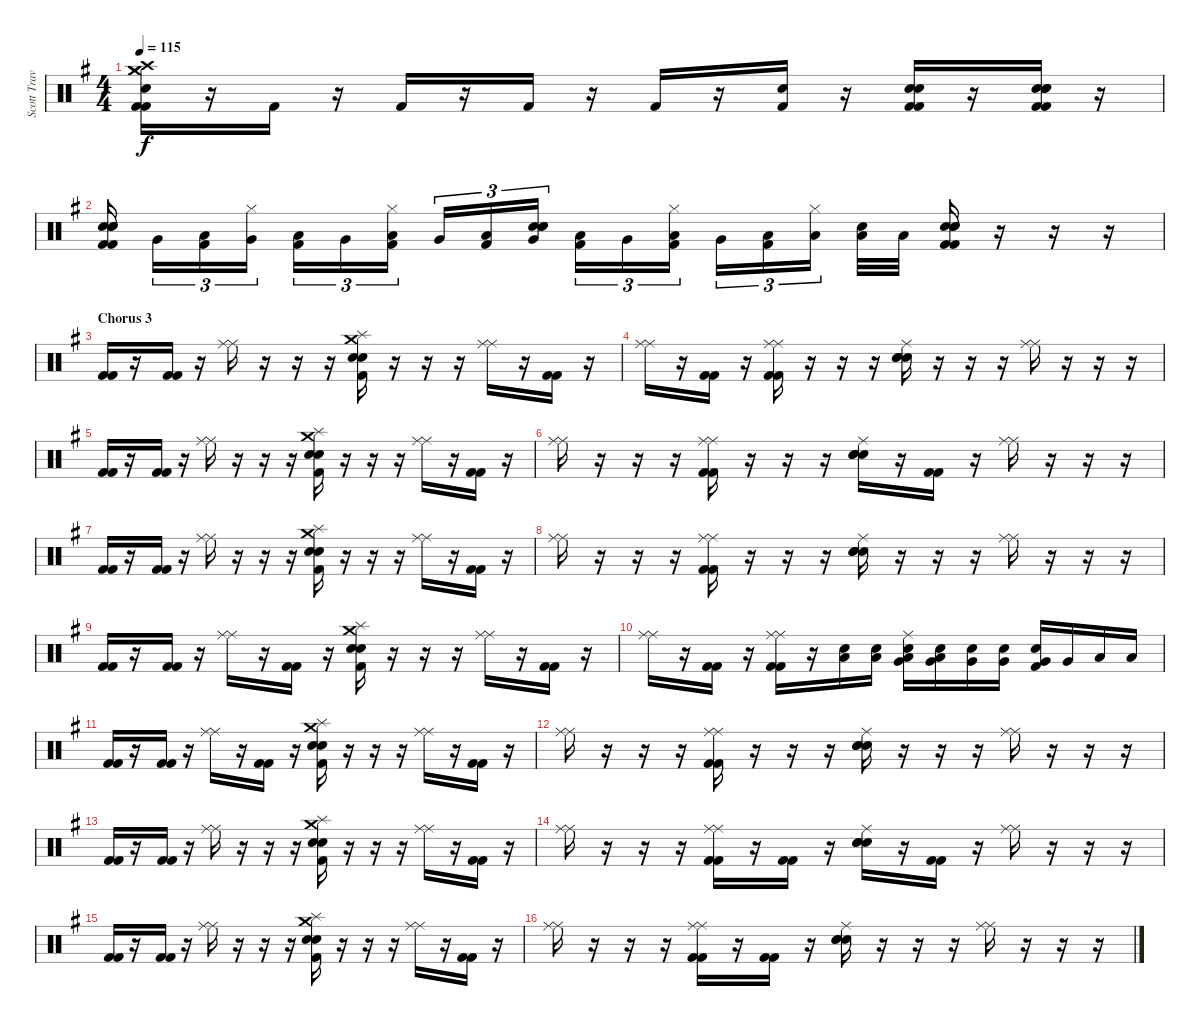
\track ("Scott Travis" "Scott Trav") {instrument percussion}
\staff {score}
\articulation defaults
\ts (4 4)
\tempo 115
\clef neutral
\ks eminor
("Crash high (hit)" "Crash medium (hit)" "Crash medium (hit)" "Snare (hit) 2" "Kick (hit) 2" "Kick (hit) 2").16{dy f} r.16 "Kick (hit) 2".16 r.16 "Kick (hit) 2".16 r.16 "Kick (hit) 2".16 r.16 "Kick (hit) 2".16 r.16 ("Snare (hit) 2" "Kick (hit) 2").16 r.16 ("Snare (hit) 2" "Snare (hit) 2" "Kick (hit) 2" "Kick (hit) 2").16 r.16 ("Snare (hit) 2" "Snare (hit) 2" "Snare (hit) 2" "Kick (hit) 2" "Kick (hit) 2").16 r.16 |
("Snare (hit) 2" "Snare (hit) 2" "Snare (hit) 2" "Kick (hit) 2" "Kick (hit) 2").16 "Very Low Tom (hit)".16{tu (3 2)} ("Low Floor Tom (hit)" "Kick (hit) 2").16{tu (3 2)} ("Hi-Hat (closed)" "Very Low Tom (hit)").16{tu (3 2)} ("Low Floor Tom (hit)" "Kick (hit) 2").16{tu (3 2)} "Very Low Tom (hit)".16{tu (3 2)} ("Hi-Hat (closed)" "Low Floor Tom (hit)" "Kick (hit) 2").16{tu (3 2)} "Very Low Tom (hit)".16{tu (3 2)} ("Low Floor Tom (hit)" "Kick (hit) 2").16{tu (3 2)} ("Snare (hit) 2" "Snare (hit) 2" "Snare (hit) 2" "Very Low Tom (hit)").16{tu (3 2)} ("Low Floor Tom (hit)" "Kick (hit) 2").16{tu (3 2)} "Very Low Tom (hit)".16{tu (3 2)} ("Hi-Hat (closed)" "Low Floor Tom (hit)" "Kick (hit) 2").16{tu (3 2)} "Very Low Tom (hit)".16{tu (3 2)} ("Low Tom (hit)" "Kick (hit) 2").16{tu (3 2)} ("Hi-Hat (closed)" "Low Floor Tom (hit)").16{tu (3 2)} ("Low Tom (hit)" "Snare (hit) 2").32 "Low Floor Tom (hit)".32 ("Snare (hit) 2" "Snare (hit) 2" "Snare (hit) 2" "Kick (hit) 2" "Kick (hit) 2").16 r.16 r.16 r.16 |
\section ("" "Chorus 3")
("Kick (hit) 2" "Kick (hit) 2").16 r.16 ("Kick (hit) 2" "Kick (hit) 2").16 r.16 ("Ride (middle)" "Ride (middle)").16 r.16 r.16 r.16 ("Crash medium (hit)" "Splash (hit)" "Snare (hit) 2" "Snare (hit) 2" "Kick (hit) 2").16 r.16 r.16 r.16 ("Ride (middle)" "Ride (middle)").16 r.16 ("Kick (hit) 2" "Kick (hit) 2").16 r.16 |
("Ride (middle)" "Ride (middle)").16 r.16 ("Kick (hit) 2" "Kick (hit) 2").16 r.16 ("Ride (middle)" "Ride (middle)" "Kick (hit) 2" "Kick (hit) 2").16 r.16 r.16 r.16 ("Ride (middle)" "Snare (hit) 2" "Snare (hit) 2" "Snare (hit) 2").16 r.16 r.16 r.16 ("Ride (middle)" "Ride (middle)").16 r.16 r.16 r.16 |
("Kick (hit) 2" "Kick (hit) 2").16 r.16 ("Kick (hit) 2" "Kick (hit) 2").16 r.16 ("Ride (middle)" "Ride (middle)").16 r.16 r.16 r.16 ("Crash medium (hit)" "Splash (hit)" "Snare (hit) 2" "Snare (hit) 2" "Kick (hit) 2").16 r.16 r.16 r.16 ("Ride (middle)" "Ride (middle)").16 r.16 ("Kick (hit) 2" "Kick (hit) 2").16 r.16 |
("Ride (middle)" "Ride (middle)").16 r.16 r.16 r.16 ("Ride (middle)" "Ride (middle)" "Kick (hit) 2" "Kick (hit) 2").16 r.16 r.16 r.16 ("Ride (middle)" "Snare (hit) 2" "Snare (hit) 2" "Snare (hit) 2").16 r.16 ("Kick (hit) 2" "Kick (hit) 2").16 r.16 ("Ride (middle)" "Ride (middle)").16 r.16 r.16 r.16 |
("Kick (hit) 2" "Kick (hit) 2").16 r.16 ("Kick (hit) 2" "Kick (hit) 2").16 r.16 ("Ride (middle)" "Ride (middle)").16 r.16 r.16 r.16 ("Crash medium (hit)" "Splash (hit)" "Snare (hit) 2" "Snare (hit) 2" "Kick (hit) 2").16 r.16 r.16 r.16 ("Ride (middle)" "Ride (middle)").16 r.16 ("Kick (hit) 2" "Kick (hit) 2").16 r.16 |
("Ride (middle)" "Ride (middle)").16 r.16 r.16 r.16 ("Ride (middle)" "Ride (middle)" "Kick (hit) 2" "Kick (hit) 2").16 r.16 r.16 r.16 ("Ride (middle)" "Snare (hit) 2" "Snare (hit) 2" "Snare (hit) 2").16 r.16 r.16 r.16 ("Ride (middle)" "Ride (middle)").16 r.16 r.16 r.16 |
("Kick (hit) 2" "Kick (hit) 2").16 r.16 ("Kick (hit) 2" "Kick (hit) 2").16 r.16 ("Ride (middle)" "Ride (middle)").16 r.16 ("Kick (hit) 2" "Kick (hit) 2").16 r.16 ("Crash medium (hit)" "Splash (hit)" "Snare (hit) 2" "Snare (hit) 2" "Kick (hit) 2").16 r.16 r.16 r.16 ("Ride (middle)" "Ride (middle)").16 r.16 ("Kick (hit) 2" "Kick (hit) 2").16 r.16 |
("Ride (middle)" "Ride (middle)").16 r.16 ("Kick (hit) 2" "Kick (hit) 2").16 r.16 ("Ride (middle)" "Ride (middle)" "Kick (hit) 2" "Kick (hit) 2").16 r.16 ("Snare (hit) 2" "Low Tom (hit)").16 ("Snare (hit) 2" "Low Tom (hit)").16 ("Ride (middle)" "Snare (hit) 2" "Low Tom (hit)" "Very Low Tom (hit)").16 ("Snare (hit) 2" "Low Tom (hit)" "Very Low Tom (hit)").16 ("Snare (hit) 2" "Very Low Tom (hit)").16 ("Snare (hit) 2" "Very Low Tom (hit)").16 ("Snare (hit) 2" "Very Low Tom (hit)" "Kick (hit) 2").16 "Very Low Tom (hit)".16 "Low Floor Tom (hit)".16 "Low Floor Tom (hit)".16 |
("Kick (hit) 2" "Kick (hit) 2").16 r.16 ("Kick (hit) 2" "Kick (hit) 2").16 r.16 ("Ride (middle)" "Ride (middle)").16 r.16 ("Kick (hit) 2" "Kick (hit) 2").16 r.16 ("Crash medium (hit)" "Splash (hit)" "Snare (hit) 2" "Snare (hit) 2" "Kick (hit) 2").16 r.16 r.16 r.16 ("Ride (middle)" "Ride (middle)").16 r.16 ("Kick (hit) 2" "Kick (hit) 2").16 r.16 |
("Ride (middle)" "Ride (middle)").16 r.16 r.16 r.16 ("Ride (middle)" "Ride (middle)" "Kick (hit) 2" "Kick (hit) 2").16 r.16 r.16 r.16 ("Ride (middle)" "Snare (hit) 2" "Snare (hit) 2" "Snare (hit) 2").16 r.16 r.16 r.16 ("Ride (middle)" "Ride (middle)").16 r.16 r.16 r.16 |
("Kick (hit) 2" "Kick (hit) 2").16 r.16 ("Kick (hit) 2" "Kick (hit) 2").16 r.16 ("Ride (middle)" "Ride (middle)").16 r.16 r.16 r.16 ("Crash medium (hit)" "Splash (hit)" "Snare (hit) 2" "Snare (hit) 2" "Kick (hit) 2").16 r.16 r.16 r.16 ("Ride (middle)" "Ride (middle)").16 r.16 ("Kick (hit) 2" "Kick (hit) 2").16 r.16 |
("Ride (middle)" "Ride (middle)").16 r.16 r.16 r.16 ("Ride (middle)" "Ride (middle)" "Kick (hit) 2" "Kick (hit) 2").16 r.16 ("Kick (hit) 2" "Kick (hit) 2").16 r.16 ("Ride (middle)" "Snare (hit) 2" "Snare (hit) 2" "Snare (hit) 2").16 r.16 ("Kick (hit) 2" "Kick (hit) 2").16 r.16 ("Ride (middle)" "Ride (middle)").16 r.16 r.16 r.16 |
("Kick (hit) 2" "Kick (hit) 2").16 r.16 ("Kick (hit) 2" "Kick (hit) 2").16 r.16 ("Ride (middle)" "Ride (middle)").16 r.16 r.16 r.16 ("Crash medium (hit)" "Splash (hit)" "Snare (hit) 2" "Snare (hit) 2" "Kick (hit) 2").16 r.16 r.16 r.16 ("Ride (middle)" "Ride (middle)").16 r.16 ("Kick (hit) 2" "Kick (hit) 2").16 r.16 |
("Ride (middle)" "Ride (middle)").16 r.16 r.16 r.16 ("Ride (middle)" "Ride (middle)" "Kick (hit) 2" "Kick (hit) 2").16 r.16 ("Kick (hit) 2" "Kick (hit) 2").16 r.16 ("Ride (middle)" "Snare (hit) 2" "Snare (hit) 2" "Snare (hit) 2").16 r.16 r.16 r.16 ("Ride (middle)" "Ride (middle)").16 r.16 r.16 r.16
